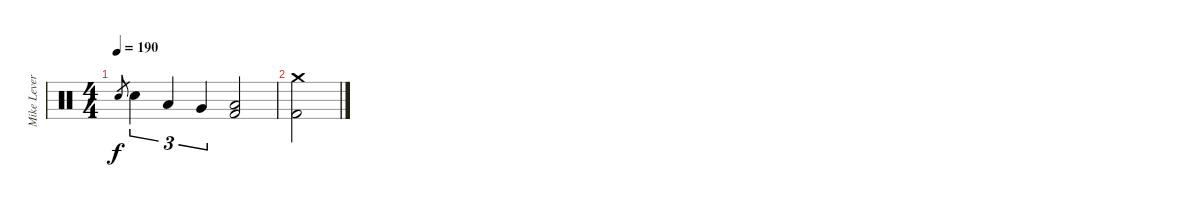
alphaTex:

\track ("Mike Leverence - Drums" "Mike Lever") {instrument percussion}
\staff {score}
\articulation defaults
\ts (4 4)
\tempo 190
\clef neutral
\ks c "Electric Snare (hit)".8{gr dy f} "Electric Snare (hit)".4{tu (3 2)} "Low Tom (hit)".4{tu (3 2)} "Very Low Tom (hit)".4{tu (3 2)}
("Low Floor Tom (hit)" "Kick (hit) 2").2 |
("Crash medium (hit)" "Kick (hit) 2").2
